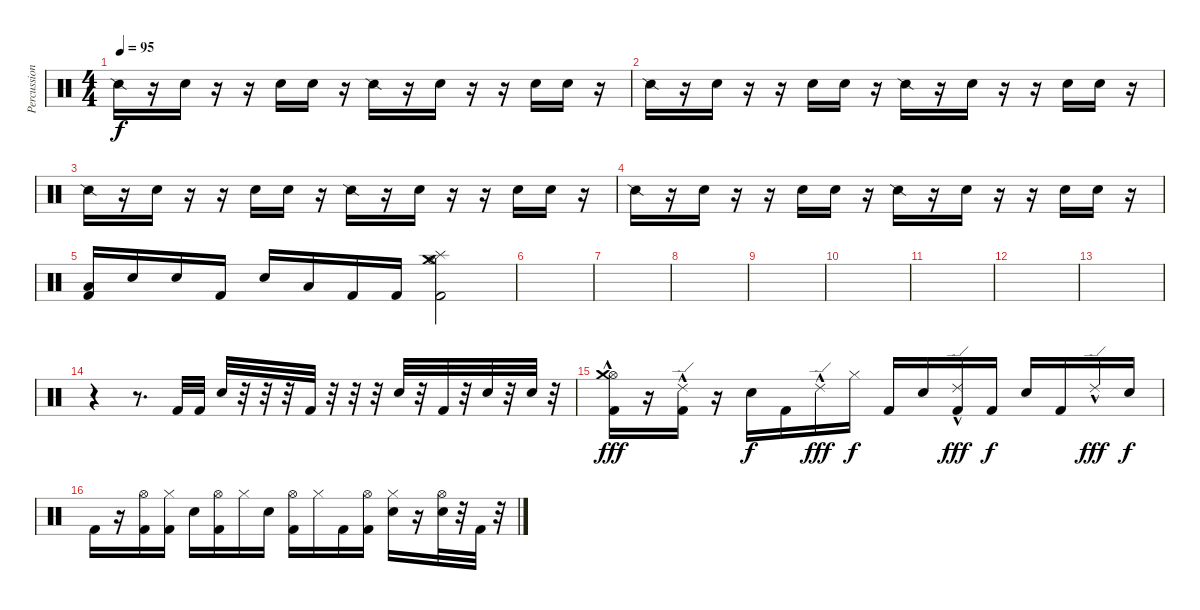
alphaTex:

\track ("Percussion" "Percussion") {instrument percussion}
\staff {score}
\articulation defaults
\ts (4 4)
\tempo 95
\clef neutral
\ks c "Snare (side stick) 2".16{dy f balance 3}
r.16 "Electric Snare (hit)".16 r.16 r.16 "Electric Snare (hit)".16 "Electric Snare (hit)".16 r.16 "Snare (side stick) 2".16 r.16 "Electric Snare (hit)".16 r.16 r.16 "Electric Snare (hit)".16 "Electric Snare (hit)".16 r.16 |
"Snare (side stick) 2".16 r.16 "Electric Snare (hit)".16 r.16 r.16 "Electric Snare (hit)".16 "Electric Snare (hit)".16 r.16 "Snare (side stick) 2".16 r.16 "Electric Snare (hit)".16 r.16 r.16 "Electric Snare (hit)".16 "Electric Snare (hit)".16 r.16 |
"Snare (side stick) 2".16 r.16 "Electric Snare (hit)".16 r.16 r.16 "Electric Snare (hit)".16 "Electric Snare (hit)".16 r.16 "Snare (side stick) 2".16 r.16 "Electric Snare (hit)".16 r.16 r.16 "Electric Snare (hit)".16 "Electric Snare (hit)".16 r.16 |
"Snare (side stick) 2".16 r.16 "Electric Snare (hit)".16 r.16 r.16 "Electric Snare (hit)".16 "Electric Snare (hit)".16 r.16 "Snare (side stick) 2".16 r.16 "Electric Snare (hit)".16 r.16 r.16 "Electric Snare (hit)".16 "Electric Snare (hit)".16 r.16 |
("Low Tom (hit)" "Kick (hit) 2").16 "Electric Snare (hit)".16 "Electric Snare (hit)".16 "Kick (hit) 2".16 "Electric Snare (hit)".16 "Low Tom (hit)".16 "Kick (hit) 2".16 "Kick (hit) 2".16 ("Crash medium (hit)" "Splash (hit)" "Hi-Hat (open)" "Kick (hit) 2").2 |
|
|
|
|
|
|
|
|
r.4 r.8{d} "Kick (hit) 2".32 "Kick (hit) 2".32 "Electric Snare (hit)".32 r.32 r.32 r.32 "Kick (hit) 2".32 r.32 r.32 r.32 "Electric Snare (hit)".32 r.32 "Kick (hit) 2".32 r.32 "Electric Snare (hit)".32 r.32 "Electric Snare (hit)".32 r.32 |
("Hi-Hat (open)" "Crash medium (hit)"{hac} "Kick (hit) 2").16{dy fff} r.16 ("Ride (edge) 2"{hac} "Kick (hit) 2").16 r.16 "Electric Snare (hit)".16{dy f} "Kick (hit) 2".16 "Ride (edge) 2"{hac}.16{dy fff} "Hi-Hat (closed)".16{dy f} "Kick (hit) 2".16 "Electric Snare (hit)".16 ("Ride (edge) 2"{hac} "Kick (hit) 2").16{dy fff} "Kick (hit) 2".16{dy f} "Electric Snare (hit)".16 "Kick (hit) 2".16 "Ride (edge) 2"{hac}.16{dy fff} "Electric Snare (hit)".16{dy f} |
"Kick (hit) 2".16 r.16 ("Hi-Hat (open)" "Kick (hit) 2").16 ("Hi-Hat (closed)" "Kick (hit) 2").16 "Electric Snare (hit)".16 ("Hi-Hat (open)" "Kick (hit) 2").16 "Hi-Hat (closed)".16 "Electric Snare (hit)".16 ("Hi-Hat (open)" "Kick (hit) 2").16 "Hi-Hat (closed)".16 "Kick (hit) 2".16 ("Hi-Hat (open)" "Kick (hit) 2").16 ("Hi-Hat (closed)" "Electric Snare (hit)").16 r.16 ("Hi-Hat (open)" "Electric Snare (hit)").32 r.32 "Kick (hit) 2".32 r.32
